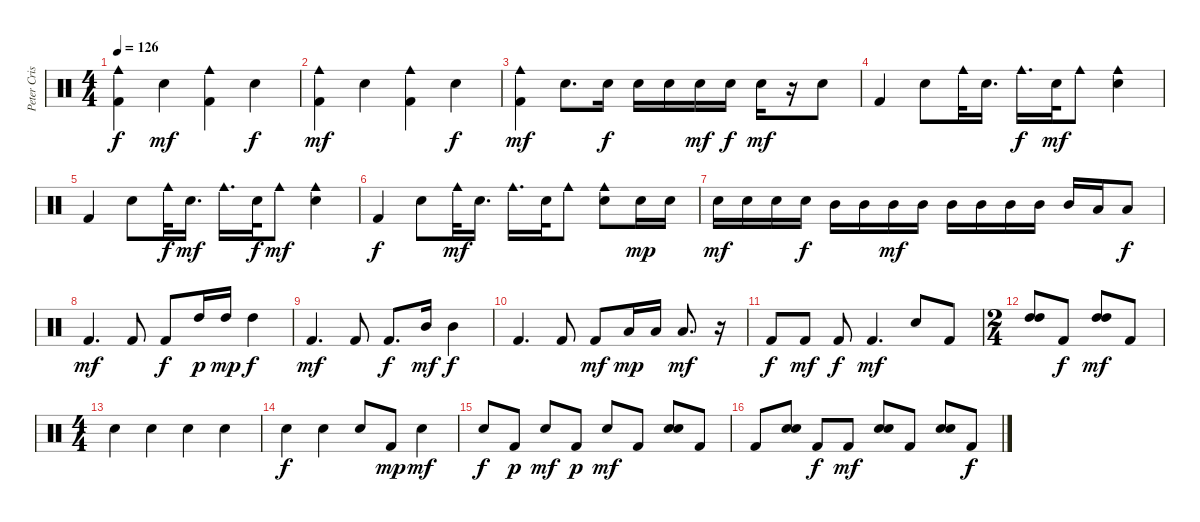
\track ("Peter Criss" "Peter Cris") {instrument percussion}
\staff {score}
\articulation defaults
\ts (4 4)
\tempo 126
\clef neutral
\ks c
("Cowbell medium (hit)" "Kick (hit) 2").4{dy f} "Electric Snare (hit)".4{dy mf} ("Cowbell medium (hit)" "Kick (hit) 2").4 "Electric Snare (hit)".4{dy f} |
("Cowbell medium (hit)" "Kick (hit) 2").4{dy mf} "Electric Snare (hit)".4 ("Cowbell medium (hit)" "Kick (hit) 2").4 "Electric Snare (hit)".4{dy f} |
("Kick (hit) 2" "Cowbell medium (hit)").4{dy mf} "Electric Snare (hit)".8{d} "Electric Snare (hit)".16{dy f} "Electric Snare (hit)".16 "Electric Snare (hit)".16 "Electric Snare (hit)".16{dy mf} "Electric Snare (hit)".16{dy f} "Electric Snare (hit)".16{dy mf} r.16 "Electric Snare (hit)".8 |
"Kick (hit) 2".4 "Electric Snare (hit)".8 "Cowbell medium (hit)".32 "Electric Snare (hit)".16{d} "Cowbell medium (hit)".16{d dy f} "Electric Snare (hit)".32{dy mf} "Cowbell medium (hit)".8 ("Cowbell medium (hit)" "Electric Snare (hit)").4 |
"Kick (hit) 2".4 "Electric Snare (hit)".8 "Cowbell medium (hit)".32{dy f} "Electric Snare (hit)".16{d dy mf} "Cowbell medium (hit)".16{d} "Electric Snare (hit)".32{dy f} "Cowbell medium (hit)".8{dy mf} ("Cowbell medium (hit)" "Electric Snare (hit)").4 |
"Kick (hit) 2".4{dy f} "Electric Snare (hit)".8 "Cowbell medium (hit)".32{dy mf} "Electric Snare (hit)".16{d} "Cowbell medium (hit)".16{d} "Electric Snare (hit)".32 "Cowbell medium (hit)".8 ("Cowbell medium (hit)" "Electric Snare (hit)").8 "Electric Snare (hit)".16{dy mp} "Electric Snare (hit)".16 |
"Electric Snare (hit)".16{dy mf} "Electric Snare (hit)".16 "Electric Snare (hit)".16 "Electric Snare (hit)".16{dy f} "Mid Tom (hit)".16 "Mid Tom (hit)".16 "Mid Tom (hit)".16{dy mf} "Mid Tom (hit)".16 "Mid Tom (hit)".16 "Mid Tom (hit)".16 "Mid Tom (hit)".16 "Mid Tom (hit)".16 "Mid Tom (hit)".16 "Low Tom (hit)".16 "Low Tom (hit)".8{dy f} |
"Kick (hit) 2".4{d dy mf} "Kick (hit) 2".8 "Kick (hit) 2".8{dy f} "High Tom (hit)".16{dy p} "High Tom (hit)".16{dy mp} "High Tom (hit)".4{dy f} |
"Kick (hit) 2".4{d dy mf} "Kick (hit) 2".8 "Kick (hit) 2".8{d dy f} "Mid Tom (hit)".16{dy mf} "Mid Tom (hit)".4{dy f} |
"Kick (hit) 2".4{d} "Kick (hit) 2".8 "Kick (hit) 2".8{dy mf} "Low Tom (hit)".16{dy mp} "Low Tom (hit)".16 "Low Tom (hit)".8{d dy mf} r.16 |
"Kick (hit) 2".8{dy f} "Kick (hit) 2".8{dy mf} "Kick (hit) 2".8{dy f} "Kick (hit) 2".4{d dy mf} "Electric Snare (hit)".8 "Kick (hit) 2".8 |
\ts (2 4)
("High Tom (hit)" "High Tom (hit)").8 "Kick (hit) 2".8{dy f} ("High Tom (hit)" "High Tom (hit)").8{dy mf} "Kick (hit) 2".8 |
\ts (4 4)
"Electric Snare (hit)".4 "Electric Snare (hit)".4 "Electric Snare (hit)".4 "Electric Snare (hit)".4 |
"Electric Snare (hit)".4{dy f} "Electric Snare (hit)".4 "Electric Snare (hit)".8 "Kick (hit) 2".8{dy mp} "Electric Snare (hit)".4{dy mf} |
"Electric Snare (hit)".8{dy f} "Kick (hit) 2".8{dy p} "Electric Snare (hit)".8{dy mf} "Kick (hit) 2".8{dy p} "Electric Snare (hit)".8{dy mf} "Kick (hit) 2".8 ("Electric Snare (hit)" "Electric Snare (hit)").8 "Kick (hit) 2".8 |
"Kick (hit) 2".8 ("Electric Snare (hit)" "Electric Snare (hit)").8 "Kick (hit) 2".8{dy f} "Kick (hit) 2".8{dy mf} ("Electric Snare (hit)" "Electric Snare (hit)").8 "Kick (hit) 2".8 ("Electric Snare (hit)" "Electric Snare (hit)").8 "Kick (hit) 2".8{dy f}
